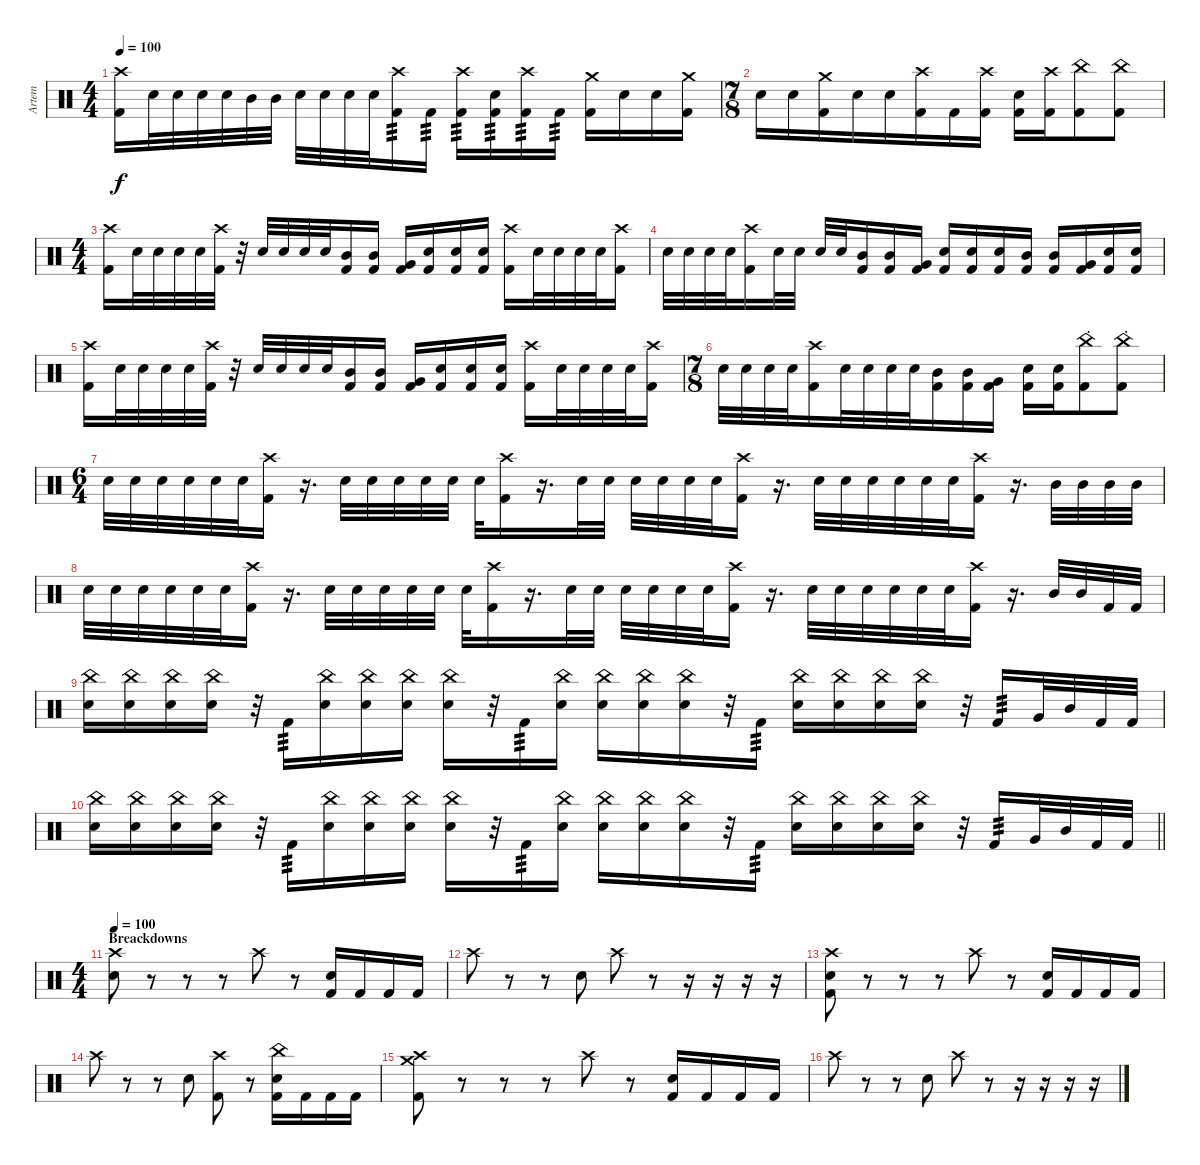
\track ("Artem" "Artem") {instrument percussion}
\staff {score}
\articulation defaults
\ts (4 4)
\tempo 100
\clef neutral
\ks c
("Crash high (hit)" "Kick (hit) 2").16{dy f} "Electric Snare (hit)".32 "Electric Snare (hit)".32 "Electric Snare (hit)".32 "Electric Snare (hit)".32 "Mid Tom (hit)".32 "Mid Tom (hit)".32 "Electric Snare (hit)".32 "Electric Snare (hit)".32 "Electric Snare (hit)".32 "Electric Snare (hit)".32 ("Crash high (hit)" "Kick (hit) 2").16{tp 3} "Kick (hit) 2".16{tp 3} ("Crash high (hit)" "Kick (hit) 2").16{tp 3} ("Electric Snare (hit)" "Kick (hit) 2").16{tp 3} ("Crash high (hit)" "Kick (hit) 2").16{tp 3} "Kick (hit) 2".16{tp 3} ("Crash medium (hit)" "Kick (hit) 2").16 "Electric Snare (hit)".16 "Electric Snare (hit)".16 ("Crash medium (hit)" "Kick (hit) 2").16 |
\ts (7 8)
"Electric Snare (hit)".16 "Electric Snare (hit)".16 ("Crash medium (hit)" "Kick (hit) 2").16 "Electric Snare (hit)".16 "Electric Snare (hit)".16 ("Crash high (hit)" "Kick (hit) 2").16 "Kick (hit) 2".16 ("Crash high (hit)" "Kick (hit) 2").16 ("Electric Snare (hit)" "Kick (hit) 2").16 ("Crash high (hit)" "Kick (hit) 2").16 ("China (hit)" "Kick (hit) 2").8 ("China (hit)" "Kick (hit) 2").8 |
\ts (4 4)
("Crash high (hit)" "Kick (hit) 2").16 "Electric Snare (hit)".32 "Electric Snare (hit)".32 "Electric Snare (hit)".32 "Electric Snare (hit)".32 ("Crash high (hit)" "Kick (hit) 2").32 r.32 "Electric Snare (hit)".32 "Electric Snare (hit)".32 "Electric Snare (hit)".32 "Electric Snare (hit)".32 ("Mid Tom (hit)" "Kick (hit) 2").16 ("Mid Tom (hit)" "Kick (hit) 2").16 ("Very Low Tom (hit)" "Kick (hit) 2").16 ("Electric Snare (hit)" "Kick (hit) 2").16 ("Electric Snare (hit)" "Kick (hit) 2").16 ("Electric Snare (hit)" "Kick (hit) 2").16 ("Crash high (hit)" "Kick (hit) 2").16 "Electric Snare (hit)".32 "Electric Snare (hit)".32 "Electric Snare (hit)".32 "Electric Snare (hit)".32 ("Crash high (hit)" "Kick (hit) 2").16 |
"Electric Snare (hit)".32 "Electric Snare (hit)".32 "Electric Snare (hit)".32 "Electric Snare (hit)".32 ("Crash high (hit)" "Kick (hit) 2").16 "Electric Snare (hit)".32 "Electric Snare (hit)".32 "Electric Snare (hit)".32 "Electric Snare (hit)".32 ("Mid Tom (hit)" "Kick (hit) 2").16 ("Mid Tom (hit)" "Kick (hit) 2").16 ("Very Low Tom (hit)" "Kick (hit) 2").16 ("Electric Snare (hit)" "Kick (hit) 2").16 ("Electric Snare (hit)" "Kick (hit) 2").16 ("Electric Snare (hit)" "Kick (hit) 2").16 ("Mid Tom (hit)" "Kick (hit) 2").16 ("Mid Tom (hit)" "Kick (hit) 2").16 ("Very Low Tom (hit)" "Kick (hit) 2").16 ("Electric Snare (hit)" "Kick (hit) 2").16 ("Electric Snare (hit)" "Kick (hit) 2").16 |
("Crash high (hit)" "Kick (hit) 2").16 "Electric Snare (hit)".32 "Electric Snare (hit)".32 "Electric Snare (hit)".32 "Electric Snare (hit)".32 ("Crash high (hit)" "Kick (hit) 2").32 r.32 "Electric Snare (hit)".32 "Electric Snare (hit)".32 "Electric Snare (hit)".32 "Electric Snare (hit)".32 ("Mid Tom (hit)" "Kick (hit) 2").16 ("Mid Tom (hit)" "Kick (hit) 2").16 ("Very Low Tom (hit)" "Kick (hit) 2").16 ("Electric Snare (hit)" "Kick (hit) 2").16 ("Electric Snare (hit)" "Kick (hit) 2").16 ("Electric Snare (hit)" "Kick (hit) 2").16 ("Crash high (hit)" "Kick (hit) 2").16 "Electric Snare (hit)".32 "Electric Snare (hit)".32 "Electric Snare (hit)".32 "Electric Snare (hit)".32 ("Crash high (hit)" "Kick (hit) 2").16 |
\ts (7 8)
"Electric Snare (hit)".32 "Electric Snare (hit)".32 "Electric Snare (hit)".32 "Electric Snare (hit)".32 ("Crash high (hit)" "Kick (hit) 2").16 "Electric Snare (hit)".32 "Electric Snare (hit)".32 "Electric Snare (hit)".32 "Electric Snare (hit)".32 ("Mid Tom (hit)" "Kick (hit) 2").16 ("Mid Tom (hit)" "Kick (hit) 2").16 ("Very Low Tom (hit)" "Kick (hit) 2").16 ("Electric Snare (hit)" "Kick (hit) 2").16 ("Electric Snare (hit)" "Kick (hit) 2").16 ("China (hit)" "Kick (hit) 2"{st}).8 ("China (hit)" "Kick (hit) 2"{st}).8 |
\ts (6 4)
"Electric Snare (hit)".32 "Electric Snare (hit)".32 "Electric Snare (hit)".32 "Electric Snare (hit)".32 "Electric Snare (hit)".32 "Electric Snare (hit)".32 ("Crash high (hit)" "Kick (hit) 2").16 r.16{d} "Electric Snare (hit)".32 "Electric Snare (hit)".32 "Electric Snare (hit)".32 "Electric Snare (hit)".32 "Electric Snare (hit)".32 "Electric Snare (hit)".32 ("Crash high (hit)" "Kick (hit) 2").16 r.16{d} "Electric Snare (hit)".32 "Electric Snare (hit)".32 "Electric Snare (hit)".32 "Electric Snare (hit)".32 "Electric Snare (hit)".32 "Electric Snare (hit)".32 ("Crash high (hit)" "Kick (hit) 2").16 r.16{d} "Electric Snare (hit)".32 "Electric Snare (hit)".32 "Electric Snare (hit)".32 "Electric Snare (hit)".32 "Electric Snare (hit)".32 "Electric Snare (hit)".32 ("Crash high (hit)" "Kick (hit) 2").16 r.16{d} "Mid Tom (hit)".32 "Mid Tom (hit)".32 "Mid Tom (hit)".32 "Mid Tom (hit)".32 |
"Electric Snare (hit)".32 "Electric Snare (hit)".32 "Electric Snare (hit)".32 "Electric Snare (hit)".32 "Electric Snare (hit)".32 "Electric Snare (hit)".32 ("Crash high (hit)" "Kick (hit) 2").16 r.16{d} "Electric Snare (hit)".32 "Electric Snare (hit)".32 "Electric Snare (hit)".32 "Electric Snare (hit)".32 "Electric Snare (hit)".32 "Electric Snare (hit)".32 ("Crash high (hit)" "Kick (hit) 2").16 r.16{d} "Electric Snare (hit)".32 "Electric Snare (hit)".32 "Electric Snare (hit)".32 "Electric Snare (hit)".32 "Electric Snare (hit)".32 "Electric Snare (hit)".32 ("Crash high (hit)" "Kick (hit) 2").16 r.16{d} "Electric Snare (hit)".32 "Electric Snare (hit)".32 "Electric Snare (hit)".32 "Electric Snare (hit)".32 "Electric Snare (hit)".32 "Electric Snare (hit)".32 ("Crash high (hit)" "Kick (hit) 2").16 r.16{d} "Mid Tom (hit)".32 "Mid Tom (hit)".32 "Kick (hit) 2".32 "Kick (hit) 2".32 |
("China (hit)" "Snare (hit) 2").16 ("China (hit)" "Snare (hit) 2").16 ("China (hit)" "Snare (hit) 2").16 ("China (hit)" "Snare (hit) 2").16 r.32 "Kick (hit) 2".16{tp 3} ("China (hit)" "Snare (hit) 2").16 ("China (hit)" "Snare (hit) 2").16 ("China (hit)" "Snare (hit) 2").16 ("China (hit)" "Snare (hit) 2").16 r.32 "Kick (hit) 2".16{tp 3} ("China (hit)" "Snare (hit) 2").16 ("China (hit)" "Snare (hit) 2").16 ("China (hit)" "Snare (hit) 2").16 ("China (hit)" "Snare (hit) 2").16 r.32 "Kick (hit) 2".16{tp 3} ("China (hit)" "Snare (hit) 2").16 ("China (hit)" "Snare (hit) 2").16 ("China (hit)" "Snare (hit) 2").16 ("China (hit)" "Snare (hit) 2").16 r.32 "Kick (hit) 2".16{tp 3} "Very Low Tom (hit)".32 "Mid Tom (hit)".32 "Kick (hit) 2".32 "Kick (hit) 2".32 |
\barLineRight lightlight
("China (hit)" "Snare (hit) 2").16 ("China (hit)" "Snare (hit) 2").16 ("China (hit)" "Snare (hit) 2").16 ("China (hit)" "Snare (hit) 2").16 r.32 "Kick (hit) 2".16{tp 3} ("China (hit)" "Snare (hit) 2").16 ("China (hit)" "Snare (hit) 2").16 ("China (hit)" "Snare (hit) 2").16 ("China (hit)" "Snare (hit) 2").16 r.32 "Kick (hit) 2".16{tp 3} ("China (hit)" "Snare (hit) 2").16 ("China (hit)" "Snare (hit) 2").16 ("China (hit)" "Snare (hit) 2").16 ("China (hit)" "Snare (hit) 2").16 r.32 "Kick (hit) 2".16{tp 3} ("China (hit)" "Snare (hit) 2").16 ("China (hit)" "Snare (hit) 2").16 ("China (hit)" "Snare (hit) 2").16 ("China (hit)" "Snare (hit) 2").16 r.32 "Kick (hit) 2".16{tp 3} "Very Low Tom (hit)".32 "Mid Tom (hit)".32 "Kick (hit) 2".32 "Kick (hit) 2".32 |
\ts (4 4)
\section ("" "Breackdowns")
\tempo 100
("Crash high (hit)" "Electric Snare (hit)").8 r.8 r.8 r.8 "Crash high (hit)".8 r.8 ("Electric Snare (hit)" "Kick (hit) 2").16 "Kick (hit) 2".16 "Kick (hit) 2".16 "Kick (hit) 2".16 |
"Crash high (hit)".8 r.8 r.8 "Electric Snare (hit)".8 "Crash high (hit)".8 r.8 r.16 r.16 r.16 r.16 |
("Crash high (hit)" "Kick (hit) 2" "Electric Snare (hit)").8 r.8 r.8 r.8 "Crash high (hit)".8 r.8 ("Electric Snare (hit)" "Kick (hit) 2").16 "Kick (hit) 2".16 "Kick (hit) 2".16 "Kick (hit) 2".16 |
"Crash high (hit)".8 r.8 r.8 "Electric Snare (hit)".8 ("Crash high (hit)" "Kick (hit) 2").8 r.8 ("China (hit)" "Kick (hit) 2" "Electric Snare (hit)").16 "Kick (hit) 2".16 "Kick (hit) 2".16 "Kick (hit) 2".16 |
("Crash high (hit)" "Kick (hit) 2" "Crash medium (hit)").8 r.8 r.8 r.8 "Crash high (hit)".8 r.8 ("Electric Snare (hit)" "Kick (hit) 2").16 "Kick (hit) 2".16 "Kick (hit) 2".16 "Kick (hit) 2".16 |
"Crash high (hit)".8 r.8 r.8 "Electric Snare (hit)".8 "Crash high (hit)".8 r.8 r.16 r.16 r.16 r.16
